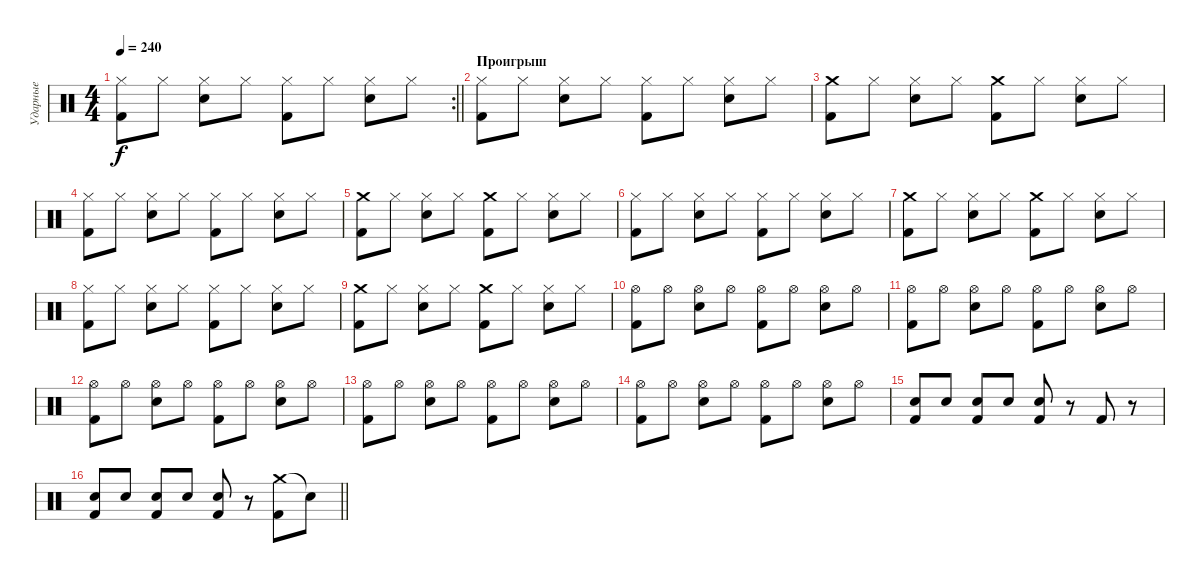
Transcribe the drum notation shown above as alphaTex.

\track ("Ударные" "Ударные") {instrument percussion}
\staff {score}
\articulation defaults
\rc 2
\ts (4 4)
\tempo 240
\clef neutral
\barLineRight lightlight
\ks c
("Hi-Hat (closed)" "Kick (hit) 2").8{dy f} "Hi-Hat (closed)".8 ("Hi-Hat (closed)" "Snare (hit) 2").8 "Hi-Hat (closed)".8 ("Hi-Hat (closed)" "Kick (hit) 2").8 "Hi-Hat (closed)".8 ("Hi-Hat (closed)" "Snare (hit) 2").8 "Hi-Hat (closed)".8 |
\section ("" "Проигрыш")
("Hi-Hat (closed)" "Kick (hit) 2").8 "Hi-Hat (closed)".8 ("Hi-Hat (closed)" "Snare (hit) 2").8 "Hi-Hat (closed)".8 ("Hi-Hat (closed)" "Kick (hit) 2").8 "Hi-Hat (closed)".8 ("Hi-Hat (closed)" "Snare (hit) 2").8 "Hi-Hat (closed)".8 |
("Crash medium (hit)" "Kick (hit) 2").8 "Hi-Hat (closed)".8 ("Hi-Hat (closed)" "Snare (hit) 2").8 "Hi-Hat (closed)".8 ("Crash medium (hit)" "Kick (hit) 2").8 "Hi-Hat (closed)".8 ("Hi-Hat (closed)" "Snare (hit) 2").8 "Hi-Hat (closed)".8 |
("Hi-Hat (closed)" "Kick (hit) 2").8 "Hi-Hat (closed)".8 ("Hi-Hat (closed)" "Snare (hit) 2").8 "Hi-Hat (closed)".8 ("Hi-Hat (closed)" "Kick (hit) 2").8 "Hi-Hat (closed)".8 ("Hi-Hat (closed)" "Snare (hit) 2").8 "Hi-Hat (closed)".8 |
("Crash medium (hit)" "Kick (hit) 2").8 "Hi-Hat (closed)".8 ("Hi-Hat (closed)" "Snare (hit) 2").8 "Hi-Hat (closed)".8 ("Crash medium (hit)" "Kick (hit) 2").8 "Hi-Hat (closed)".8 ("Hi-Hat (closed)" "Snare (hit) 2").8 "Hi-Hat (closed)".8 |
("Hi-Hat (closed)" "Kick (hit) 2").8 "Hi-Hat (closed)".8 ("Hi-Hat (closed)" "Snare (hit) 2").8 "Hi-Hat (closed)".8 ("Hi-Hat (closed)" "Kick (hit) 2").8 "Hi-Hat (closed)".8 ("Hi-Hat (closed)" "Snare (hit) 2").8 "Hi-Hat (closed)".8 |
("Crash medium (hit)" "Kick (hit) 2").8 "Hi-Hat (closed)".8 ("Hi-Hat (closed)" "Snare (hit) 2").8 "Hi-Hat (closed)".8 ("Crash medium (hit)" "Kick (hit) 2").8 "Hi-Hat (closed)".8 ("Hi-Hat (closed)" "Snare (hit) 2").8 "Hi-Hat (closed)".8 |
("Hi-Hat (closed)" "Kick (hit) 2").8 "Hi-Hat (closed)".8 ("Hi-Hat (closed)" "Snare (hit) 2").8 "Hi-Hat (closed)".8 ("Hi-Hat (closed)" "Kick (hit) 2").8 "Hi-Hat (closed)".8 ("Hi-Hat (closed)" "Snare (hit) 2").8 "Hi-Hat (closed)".8 |
("Crash medium (hit)" "Kick (hit) 2").8 "Hi-Hat (closed)".8 ("Hi-Hat (closed)" "Snare (hit) 2").8 "Hi-Hat (closed)".8 ("Crash medium (hit)" "Kick (hit) 2").8 "Hi-Hat (closed)".8 ("Hi-Hat (closed)" "Snare (hit) 2").8 "Hi-Hat (closed)".8 |
("Hi-Hat (open)" "Kick (hit) 2").8 "Hi-Hat (open)".8 ("Hi-Hat (open)" "Snare (hit) 2").8 "Hi-Hat (open)".8 ("Hi-Hat (open)" "Kick (hit) 2").8 "Hi-Hat (open)".8 ("Hi-Hat (open)" "Snare (hit) 2").8 "Hi-Hat (open)".8 |
("Hi-Hat (open)" "Kick (hit) 2").8 "Hi-Hat (open)".8 ("Hi-Hat (open)" "Snare (hit) 2").8 "Hi-Hat (open)".8 ("Hi-Hat (open)" "Kick (hit) 2").8 "Hi-Hat (open)".8 ("Hi-Hat (open)" "Snare (hit) 2").8 "Hi-Hat (open)".8 |
("Hi-Hat (open)" "Kick (hit) 2").8 "Hi-Hat (open)".8 ("Hi-Hat (open)" "Snare (hit) 2").8 "Hi-Hat (open)".8 ("Hi-Hat (open)" "Kick (hit) 2").8 "Hi-Hat (open)".8 ("Hi-Hat (open)" "Snare (hit) 2").8 "Hi-Hat (open)".8 |
("Hi-Hat (open)" "Kick (hit) 2").8 "Hi-Hat (open)".8 ("Hi-Hat (open)" "Snare (hit) 2").8 "Hi-Hat (open)".8 ("Hi-Hat (open)" "Kick (hit) 2").8 "Hi-Hat (open)".8 ("Hi-Hat (open)" "Snare (hit) 2").8 "Hi-Hat (open)".8 |
("Hi-Hat (open)" "Kick (hit) 2").8 "Hi-Hat (open)".8 ("Hi-Hat (open)" "Snare (hit) 2").8 "Hi-Hat (open)".8 ("Hi-Hat (open)" "Kick (hit) 2").8 "Hi-Hat (open)".8 ("Hi-Hat (open)" "Snare (hit) 2").8 "Hi-Hat (open)".8 |
("Snare (hit) 2" "Kick (hit) 2").8 "Snare (hit) 2".8 ("Snare (hit) 2" "Kick (hit) 2").8 "Snare (hit) 2".8 ("Snare (hit) 2" "Kick (hit) 2").8 r.8 "Kick (hit) 2".8 r.8 |
\barLineRight lightlight
("Snare (hit) 2" "Kick (hit) 2").8 "Snare (hit) 2".8 ("Snare (hit) 2" "Kick (hit) 2").8 "Snare (hit) 2".8 ("Snare (hit) 2" "Kick (hit) 2").8 r.8 ("Crash medium (hit)" "Kick (hit) 2").8 "Snare (hit)"{t}.8
